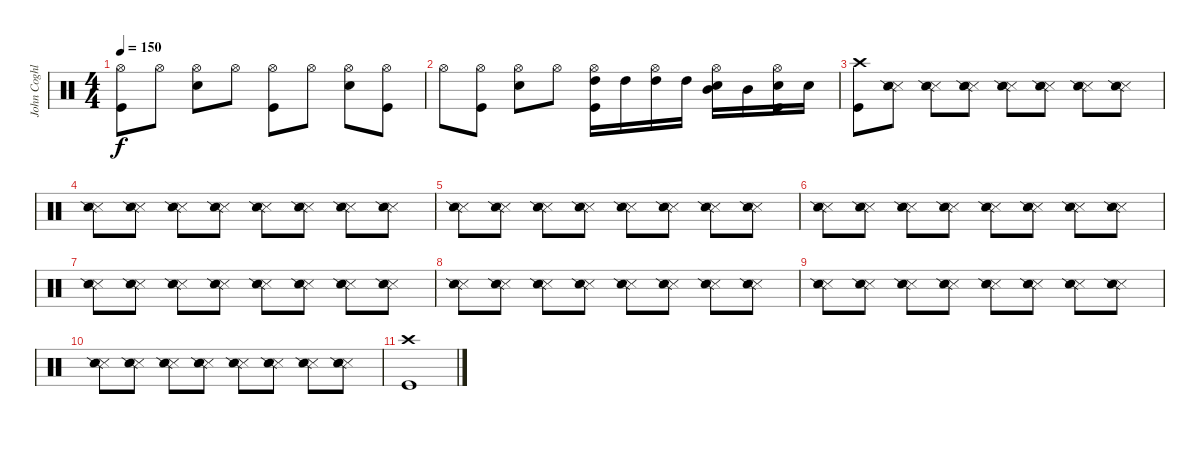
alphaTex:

\track ("John Coghlan" "John Coghl") {instrument percussion}
\staff {score}
\articulation defaults
\ts (4 4)
\tempo 150
\clef neutral
\ks c
("Hi-Hat (open)" "Kick (hit)").8{dy f} "Hi-Hat (open)".8 ("Electric Snare (hit)" "Hi-Hat (open)").8 "Hi-Hat (open)".8 ("Hi-Hat (open)" "Kick (hit)").8 "Hi-Hat (open)".8 ("Electric Snare (hit)" "Hi-Hat (open)").8 ("Hi-Hat (open)" "Kick (hit)").8 |
"Hi-Hat (open)".8 ("Hi-Hat (open)" "Kick (hit)").8 ("Electric Snare (hit)" "Hi-Hat (open)").8 "Hi-Hat (open)".8 ("High Tom (hit)" "Hi-Hat (open)" "Kick (hit)").16 "High Tom (hit)".16 ("High Tom (hit)" "Hi-Hat (open)").16 "High Tom (hit)".16 ("Mid Tom (hit)" "Electric Snare (hit)" "Hi-Hat (open)").16 "Mid Tom (hit)".16 ("Electric Snare (hit)" "Hi-Hat (open)" "Kick (hit)").16 "Electric Snare (hit)".16 |
("Crash high (hit)" "Kick (hit)").8 ("Snare (side stick) 3" "Snare (side stick) 2").8 ("Snare (side stick) 3" "Snare (side stick) 2").8 ("Snare (side stick) 3" "Snare (side stick) 2").8 ("Snare (side stick) 3" "Snare (side stick) 2").8 ("Snare (side stick) 3" "Snare (side stick) 2").8 ("Snare (side stick) 3" "Snare (side stick) 2").8 ("Snare (side stick) 3" "Snare (side stick) 2").8 |
("Snare (side stick) 3" "Snare (side stick) 2").8 ("Snare (side stick) 3" "Snare (side stick) 2").8 ("Snare (side stick) 3" "Snare (side stick) 2").8 ("Snare (side stick) 3" "Snare (side stick) 2").8 ("Snare (side stick) 3" "Snare (side stick) 2").8 ("Snare (side stick) 3" "Snare (side stick) 2").8 ("Snare (side stick) 3" "Snare (side stick) 2").8 ("Snare (side stick) 3" "Snare (side stick) 2").8 |
("Snare (side stick) 3" "Snare (side stick) 2").8 ("Snare (side stick) 3" "Snare (side stick) 2").8 ("Snare (side stick) 3" "Snare (side stick) 2").8 ("Snare (side stick) 3" "Snare (side stick) 2").8 ("Snare (side stick) 3" "Snare (side stick) 2").8 ("Snare (side stick) 3" "Snare (side stick) 2").8 ("Snare (side stick) 3" "Snare (side stick) 2").8 ("Snare (side stick) 3" "Snare (side stick) 2").8 |
("Snare (side stick) 3" "Snare (side stick) 2").8 ("Snare (side stick) 3" "Snare (side stick) 2").8 ("Snare (side stick) 3" "Snare (side stick) 2").8 ("Snare (side stick) 3" "Snare (side stick) 2").8 ("Snare (side stick) 3" "Snare (side stick) 2").8 ("Snare (side stick) 3" "Snare (side stick) 2").8 ("Snare (side stick) 3" "Snare (side stick) 2").8 ("Snare (side stick) 3" "Snare (side stick) 2").8 |
("Snare (side stick) 3" "Snare (side stick) 2").8 ("Snare (side stick) 3" "Snare (side stick) 2").8 ("Snare (side stick) 3" "Snare (side stick) 2").8 ("Snare (side stick) 3" "Snare (side stick) 2").8 ("Snare (side stick) 3" "Snare (side stick) 2").8 ("Snare (side stick) 3" "Snare (side stick) 2").8 ("Snare (side stick) 3" "Snare (side stick) 2").8 ("Snare (side stick) 3" "Snare (side stick) 2").8 |
("Snare (side stick) 3" "Snare (side stick) 2").8 ("Snare (side stick) 3" "Snare (side stick) 2").8 ("Snare (side stick) 3" "Snare (side stick) 2").8 ("Snare (side stick) 3" "Snare (side stick) 2").8 ("Snare (side stick) 3" "Snare (side stick) 2").8 ("Snare (side stick) 3" "Snare (side stick) 2").8 ("Snare (side stick) 3" "Snare (side stick) 2").8 ("Snare (side stick) 3" "Snare (side stick) 2").8 |
("Snare (side stick) 3" "Snare (side stick) 2").8 ("Snare (side stick) 3" "Snare (side stick) 2").8 ("Snare (side stick) 3" "Snare (side stick) 2").8 ("Snare (side stick) 3" "Snare (side stick) 2").8 ("Snare (side stick) 3" "Snare (side stick) 2").8 ("Snare (side stick) 3" "Snare (side stick) 2").8 ("Snare (side stick) 3" "Snare (side stick) 2").8 ("Snare (side stick) 3" "Snare (side stick) 2").8 |
("Snare (side stick) 3" "Snare (side stick) 2").8 ("Snare (side stick) 3" "Snare (side stick) 2").8 ("Snare (side stick) 3" "Snare (side stick) 2").8 ("Snare (side stick) 3" "Snare (side stick) 2").8 ("Snare (side stick) 3" "Snare (side stick) 2").8 ("Snare (side stick) 3" "Snare (side stick) 2").8 ("Snare (side stick) 3" "Snare (side stick) 2").8 ("Snare (side stick) 3" "Snare (side stick) 2").8 |
("Crash high (hit)" "Kick (hit)").1
